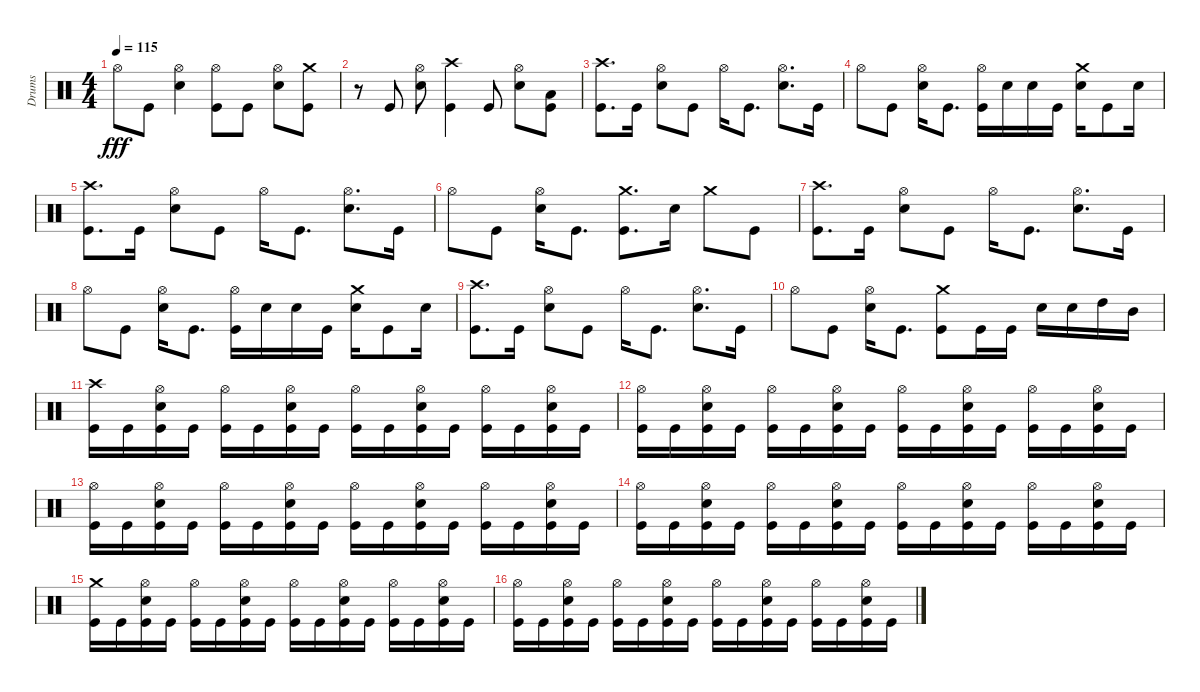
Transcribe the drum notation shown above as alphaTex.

\track ("Drums" "Drums") {instrument percussion}
\staff {score}
\articulation defaults
\ts (4 4)
\tempo 115
\clef neutral
\ks c "Hi-Hat (open)".8{dy fff} "Kick (hit)".8
("Hi-Hat (open)" "Electric Snare (hit)").4 ("Hi-Hat (open)" "Kick (hit)").8 "Kick (hit)".8 ("Hi-Hat (open)" "Electric Snare (hit)").8 ("Crash medium (hit)" "Kick (hit)").8 |
r.8 "Kick (hit)".8 ("Hi-Hat (open)" "Electric Snare (hit)").8 ("Crash high (hit)" "Kick (hit)").4 "Kick (hit)".8 ("Hi-Hat (open)" "Electric Snare (hit)").8 ("Low Floor Tom (hit)" "Kick (hit)").8 |
("Crash high (hit)" "Kick (hit)").8{d} "Kick (hit)".16 ("Hi-Hat (open)" "Electric Snare (hit)").8 "Kick (hit)".8 "Hi-Hat (open)".16 "Kick (hit)".8{d} ("Hi-Hat (open)" "Electric Snare (hit)").8{d} "Kick (hit)".16 |
"Hi-Hat (open)".8 "Kick (hit)".8 ("Hi-Hat (open)" "Electric Snare (hit)").16 "Kick (hit)".8{d} ("Hi-Hat (open)" "Kick (hit)").16 "Electric Snare (hit)".16 "Electric Snare (hit)".16 "Kick (hit)".16 ("Crash medium (hit)" "Electric Snare (hit)").16 "Kick (hit)".8 "Electric Snare (hit)".16 |
("Crash high (hit)" "Kick (hit)").8{d} "Kick (hit)".16 ("Hi-Hat (open)" "Electric Snare (hit)").8 "Kick (hit)".8 "Hi-Hat (open)".16 "Kick (hit)".8{d} ("Hi-Hat (open)" "Electric Snare (hit)").8{d} "Kick (hit)".16 |
"Hi-Hat (open)".8 "Kick (hit)".8 ("Hi-Hat (open)" "Electric Snare (hit)").16 "Kick (hit)".8{d} ("Crash medium (hit)" "Kick (hit)").8{d} "Electric Snare (hit)".16 "Crash medium (hit)".8 "Kick (hit)".8 |
("Crash high (hit)" "Kick (hit)").8{d} "Kick (hit)".16 ("Hi-Hat (open)" "Electric Snare (hit)").8 "Kick (hit)".8 "Hi-Hat (open)".16 "Kick (hit)".8{d} ("Hi-Hat (open)" "Electric Snare (hit)").8{d} "Kick (hit)".16 |
"Hi-Hat (open)".8 "Kick (hit)".8 ("Hi-Hat (open)" "Electric Snare (hit)").16 "Kick (hit)".8{d} ("Hi-Hat (open)" "Kick (hit)").16 "Electric Snare (hit)".16 "Electric Snare (hit)".16 "Kick (hit)".16 ("Crash medium (hit)" "Electric Snare (hit)").16 "Kick (hit)".8 "Electric Snare (hit)".16 |
("Crash high (hit)" "Kick (hit)").8{d} "Kick (hit)".16 ("Hi-Hat (open)" "Electric Snare (hit)").8 "Kick (hit)".8 "Hi-Hat (open)".16 "Kick (hit)".8{d} ("Hi-Hat (open)" "Electric Snare (hit)").8{d} "Kick (hit)".16 |
"Hi-Hat (open)".8 "Kick (hit)".8 ("Hi-Hat (open)" "Electric Snare (hit)").16 "Kick (hit)".8{d} ("Crash medium (hit)" "Kick (hit)").8 "Kick (hit)".16 "Kick (hit)".16 "Electric Snare (hit)".16 "Electric Snare (hit)".16 "High Tom (hit)".16 "Mid Tom (hit)".16 |
("Crash high (hit)" "Kick (hit)").16 "Kick (hit)".16 ("Hi-Hat (open)" "Electric Snare (hit)" "Kick (hit)").16 "Kick (hit)".16 ("Hi-Hat (open)" "Kick (hit)").16 "Kick (hit)".16 ("Hi-Hat (open)" "Electric Snare (hit)" "Kick (hit)").16 "Kick (hit)".16 ("Hi-Hat (open)" "Kick (hit)").16 "Kick (hit)".16 ("Hi-Hat (open)" "Electric Snare (hit)" "Kick (hit)").16 "Kick (hit)".16 ("Hi-Hat (open)" "Kick (hit)").16 "Kick (hit)".16 ("Hi-Hat (open)" "Electric Snare (hit)" "Kick (hit)").16 "Kick (hit)".16 |
("Hi-Hat (open)" "Kick (hit)").16 "Kick (hit)".16 ("Hi-Hat (open)" "Electric Snare (hit)" "Kick (hit)").16 "Kick (hit)".16 ("Hi-Hat (open)" "Kick (hit)").16 "Kick (hit)".16 ("Hi-Hat (open)" "Electric Snare (hit)" "Kick (hit)").16 "Kick (hit)".16 ("Hi-Hat (open)" "Kick (hit)").16 "Kick (hit)".16 ("Hi-Hat (open)" "Electric Snare (hit)" "Kick (hit)").16 "Kick (hit)".16 ("Hi-Hat (open)" "Kick (hit)").16 "Kick (hit)".16 ("Hi-Hat (open)" "Electric Snare (hit)" "Kick (hit)").16 "Kick (hit)".16 |
("Hi-Hat (open)" "Kick (hit)").16 "Kick (hit)".16 ("Hi-Hat (open)" "Electric Snare (hit)" "Kick (hit)").16 "Kick (hit)".16 ("Hi-Hat (open)" "Kick (hit)").16 "Kick (hit)".16 ("Hi-Hat (open)" "Electric Snare (hit)" "Kick (hit)").16 "Kick (hit)".16 ("Hi-Hat (open)" "Kick (hit)").16 "Kick (hit)".16 ("Hi-Hat (open)" "Electric Snare (hit)" "Kick (hit)").16 "Kick (hit)".16 ("Hi-Hat (open)" "Kick (hit)").16 "Kick (hit)".16 ("Hi-Hat (open)" "Electric Snare (hit)" "Kick (hit)").16 "Kick (hit)".16 |
("Hi-Hat (open)" "Kick (hit)").16 "Kick (hit)".16 ("Hi-Hat (open)" "Electric Snare (hit)" "Kick (hit)").16 "Kick (hit)".16 ("Hi-Hat (open)" "Kick (hit)").16 "Kick (hit)".16 ("Hi-Hat (open)" "Electric Snare (hit)" "Kick (hit)").16 "Kick (hit)".16 ("Hi-Hat (open)" "Kick (hit)").16 "Kick (hit)".16 ("Hi-Hat (open)" "Electric Snare (hit)" "Kick (hit)").16 "Kick (hit)".16 ("Hi-Hat (open)" "Kick (hit)").16 "Kick (hit)".16 ("Hi-Hat (open)" "Electric Snare (hit)" "Kick (hit)").16 "Kick (hit)".16 |
("Crash medium (hit)" "Kick (hit)").16 "Kick (hit)".16 ("Hi-Hat (open)" "Electric Snare (hit)" "Kick (hit)").16 "Kick (hit)".16 ("Hi-Hat (open)" "Kick (hit)").16 "Kick (hit)".16 ("Hi-Hat (open)" "Electric Snare (hit)" "Kick (hit)").16 "Kick (hit)".16 ("Hi-Hat (open)" "Kick (hit)").16 "Kick (hit)".16 ("Hi-Hat (open)" "Electric Snare (hit)" "Kick (hit)").16 "Kick (hit)".16 ("Hi-Hat (open)" "Kick (hit)").16 "Kick (hit)".16 ("Hi-Hat (open)" "Electric Snare (hit)" "Kick (hit)").16 "Kick (hit)".16 |
("Hi-Hat (open)" "Kick (hit)").16 "Kick (hit)".16 ("Hi-Hat (open)" "Electric Snare (hit)" "Kick (hit)").16 "Kick (hit)".16 ("Hi-Hat (open)" "Kick (hit)").16 "Kick (hit)".16 ("Hi-Hat (open)" "Electric Snare (hit)" "Kick (hit)").16 "Kick (hit)".16 ("Hi-Hat (open)" "Kick (hit)").16 "Kick (hit)".16 ("Hi-Hat (open)" "Electric Snare (hit)" "Kick (hit)").16 "Kick (hit)".16 ("Hi-Hat (open)" "Kick (hit)").16 "Kick (hit)".16 ("Hi-Hat (open)" "Electric Snare (hit)" "Kick (hit)").16 "Kick (hit)".16
